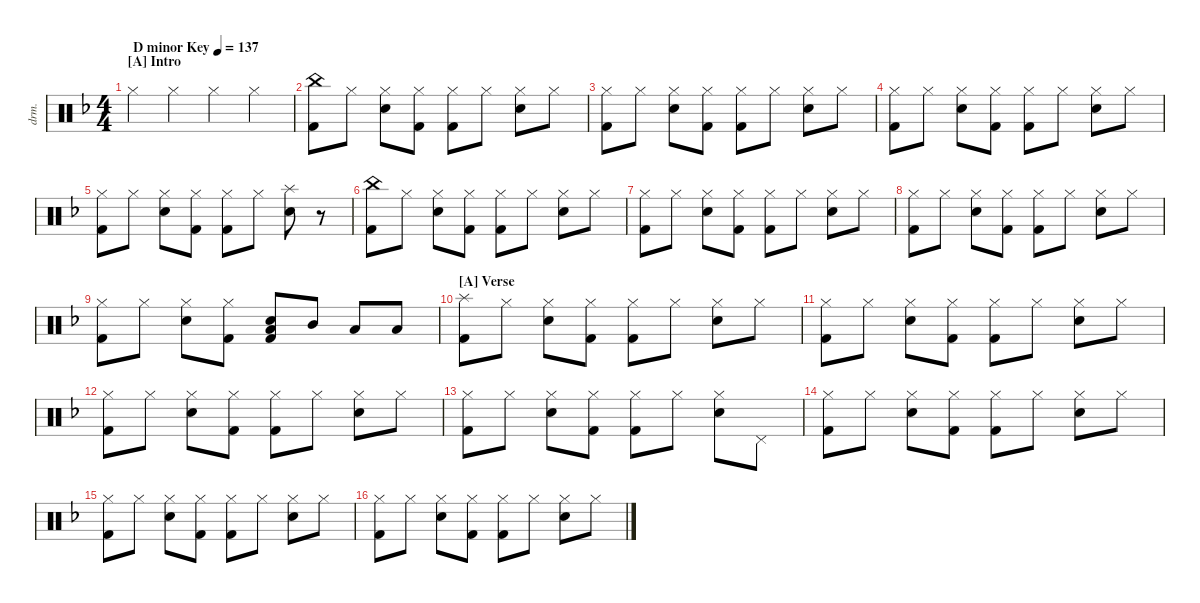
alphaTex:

\defaultSystemsLayout 4
\hideDynamics
\bracketExtendMode nobrackets
\track ("Drumkit" "drm.") {defaultSystemsLayout 4 instrument percussion}
\staff {score}
\articulation defaults
\ts (4 4)
\section ("A" "Intro")
\tempo (137 "D minor Key")
\clef neutral
\ks f "Hi-Hat (closed)"{acc forcenatural}.4{dy mf beam Down} "Hi-Hat (closed)"{acc forcenatural}.4{beam Down} "Hi-Hat (closed)"{acc forcenatural}.4{beam Down} "Hi-Hat (closed)"{acc forcenatural}.4{beam Down}
|
("Kick (hit) 2"{acc forcenatural} "China (hit)"{acc forcenatural}).8{beam Down} "Hi-Hat (closed)"{acc forcenatural}.8{beam Down} ("Hi-Hat (closed)"{acc forcenatural} "Snare (hit) 2"{acc forcenatural}).8{beam Down} ("Hi-Hat (closed)"{acc forcenatural} "Kick (hit) 2"{acc forcenatural}).8{beam Down} ("Hi-Hat (closed)"{acc forcenatural} "Kick (hit) 2"{acc forcenatural}).8{beam Down} "Hi-Hat (closed)"{acc forcenatural}.8{beam Down} ("Hi-Hat (closed)"{acc forcenatural} "Snare (hit) 2"{acc forcenatural}).8{beam Down} "Hi-Hat (closed)"{acc forcenatural}.8{beam Down} |
("Kick (hit) 2"{acc forcenatural} "Hi-Hat (closed)"{acc forcenatural}).8{beam Down} "Hi-Hat (closed)"{acc forcenatural}.8{beam Down} ("Hi-Hat (closed)"{acc forcenatural} "Snare (hit) 2"{acc forcenatural}).8{beam Down} ("Hi-Hat (closed)"{acc forcenatural} "Kick (hit) 2"{acc forcenatural}).8{beam Down} ("Hi-Hat (closed)"{acc forcenatural} "Kick (hit) 2"{acc forcenatural}).8{beam Down} "Hi-Hat (closed)"{acc forcenatural}.8{beam Down} ("Hi-Hat (closed)"{acc forcenatural} "Snare (hit) 2"{acc forcenatural}).8{beam Down} "Hi-Hat (closed)"{acc forcenatural}.8{beam Down} |
("Kick (hit) 2"{acc forcenatural} "Hi-Hat (closed)"{acc forcenatural}).8{beam Down} "Hi-Hat (closed)"{acc forcenatural}.8{beam Down} ("Hi-Hat (closed)"{acc forcenatural} "Snare (hit) 2"{acc forcenatural}).8{beam Down} ("Hi-Hat (closed)"{acc forcenatural} "Kick (hit) 2"{acc forcenatural}).8{beam Down} ("Hi-Hat (closed)"{acc forcenatural} "Kick (hit) 2"{acc forcenatural}).8{beam Down} "Hi-Hat (closed)"{acc forcenatural}.8{beam Down} ("Hi-Hat (closed)"{acc forcenatural} "Snare (hit) 2"{acc forcenatural}).8{beam Down} "Hi-Hat (closed)"{acc forcenatural}.8{beam Down} |
("Kick (hit) 2"{acc forcenatural} "Hi-Hat (closed)"{acc forcenatural}).8{beam Down} "Hi-Hat (closed)"{acc forcenatural}.8{beam Down} ("Hi-Hat (closed)"{acc forcenatural} "Snare (hit) 2"{acc forcenatural}).8{beam Down} ("Hi-Hat (closed)"{acc forcenatural} "Kick (hit) 2"{acc forcenatural}).8{beam Down} ("Hi-Hat (closed)"{acc forcenatural} "Kick (hit) 2"{acc forcenatural}).8{beam Down} "Hi-Hat (closed)"{acc forcenatural}.8{beam Down} ("Snare (hit) 2"{acc forcenatural} "Splash (hit)"{acc forcenatural}).8{beam Down} r.8{beam Down} |
("Kick (hit) 2"{acc forcenatural} "China (hit)"{acc forcenatural}).8{beam Down} "Hi-Hat (closed)"{acc forcenatural}.8{beam Down} ("Hi-Hat (closed)"{acc forcenatural} "Snare (hit) 2"{acc forcenatural}).8{beam Down} ("Hi-Hat (closed)"{acc forcenatural} "Kick (hit) 2"{acc forcenatural}).8{beam Down} ("Hi-Hat (closed)"{acc forcenatural} "Kick (hit) 2"{acc forcenatural}).8{beam Down} "Hi-Hat (closed)"{acc forcenatural}.8{beam Down} ("Hi-Hat (closed)"{acc forcenatural} "Snare (hit) 2"{acc forcenatural}).8{beam Down} "Hi-Hat (closed)"{acc forcenatural}.8{beam Down} |
("Kick (hit) 2"{acc forcenatural} "Hi-Hat (closed)"{acc forcenatural}).8{beam Down} "Hi-Hat (closed)"{acc forcenatural}.8{beam Down} ("Hi-Hat (closed)"{acc forcenatural} "Snare (hit) 2"{acc forcenatural}).8{beam Down} ("Hi-Hat (closed)"{acc forcenatural} "Kick (hit) 2"{acc forcenatural}).8{beam Down} ("Hi-Hat (closed)"{acc forcenatural} "Kick (hit) 2"{acc forcenatural}).8{beam Down} "Hi-Hat (closed)"{acc forcenatural}.8{beam Down} ("Hi-Hat (closed)"{acc forcenatural} "Snare (hit) 2"{acc forcenatural}).8{beam Down} "Hi-Hat (closed)"{acc forcenatural}.8{beam Down} |
("Kick (hit) 2"{acc forcenatural} "Hi-Hat (closed)"{acc forcenatural}).8{beam Down} "Hi-Hat (closed)"{acc forcenatural}.8{beam Down} ("Hi-Hat (closed)"{acc forcenatural} "Snare (hit) 2"{acc forcenatural}).8{beam Down} ("Hi-Hat (closed)"{acc forcenatural} "Kick (hit) 2"{acc forcenatural}).8{beam Down} ("Hi-Hat (closed)"{acc forcenatural} "Kick (hit) 2"{acc forcenatural}).8{beam Down} "Hi-Hat (closed)"{acc forcenatural}.8{beam Down} ("Hi-Hat (closed)"{acc forcenatural} "Snare (hit) 2"{acc forcenatural}).8{beam Down} "Hi-Hat (closed)"{acc forcenatural}.8{beam Down} |
("Kick (hit) 2"{acc forcenatural} "Hi-Hat (closed)"{acc forcenatural}).8{beam Down} "Hi-Hat (closed)"{acc forcenatural}.8{beam Down} ("Hi-Hat (closed)"{acc forcenatural} "Snare (hit) 2"{acc forcenatural}).8{beam Down} ("Hi-Hat (closed)"{acc forcenatural} "Kick (hit) 2"{acc forcenatural}).8{beam Down} ("Snare (hit) 2"{acc forcenatural} "Low Tom (hit)"{acc forcenatural} "Kick (hit) 2"{acc forcenatural}).8{beam Up} "Mid Tom (hit)"{acc forcenatural}.8{beam Up} "Low Tom (hit)"{acc forcenatural}.8{beam Up} "Low Tom (hit)"{acc forcenatural}.8{beam Up} |
\section ("A" "Verse")
("Kick (hit) 2"{acc forcenatural} "Splash (hit)"{acc forcenatural}).8{beam Down} "Hi-Hat (closed)"{acc forcenatural}.8{beam Down} ("Hi-Hat (closed)"{acc forcenatural} "Snare (hit) 2"{acc forcenatural}).8{beam Down} ("Hi-Hat (closed)"{acc forcenatural} "Kick (hit) 2"{acc forcenatural}).8{beam Down} ("Hi-Hat (closed)"{acc forcenatural} "Kick (hit) 2"{acc forcenatural}).8{beam Down} "Hi-Hat (closed)"{acc forcenatural}.8{beam Down} ("Hi-Hat (closed)"{acc forcenatural} "Snare (hit) 2"{acc forcenatural}).8{beam Down} "Hi-Hat (closed)"{acc forcenatural}.8{beam Down} |
("Kick (hit) 2"{acc forcenatural} "Hi-Hat (closed)"{acc forcenatural}).8{beam Down} "Hi-Hat (closed)"{acc forcenatural}.8{beam Down} ("Hi-Hat (closed)"{acc forcenatural} "Snare (hit) 2"{acc forcenatural}).8{beam Down} ("Hi-Hat (closed)"{acc forcenatural} "Kick (hit) 2"{acc forcenatural}).8{beam Down} ("Hi-Hat (closed)"{acc forcenatural} "Kick (hit) 2"{acc forcenatural}).8{beam Down} "Hi-Hat (closed)"{acc forcenatural}.8{beam Down} ("Hi-Hat (closed)"{acc forcenatural} "Snare (hit) 2"{acc forcenatural}).8{beam Down} "Hi-Hat (closed)"{acc forcenatural}.8{beam Down} |
("Kick (hit) 2"{acc forcenatural} "Hi-Hat (closed)"{acc forcenatural}).8{beam Down} "Hi-Hat (closed)"{acc forcenatural}.8{beam Down} ("Hi-Hat (closed)"{acc forcenatural} "Snare (hit) 2"{acc forcenatural}).8{beam Down} ("Hi-Hat (closed)"{acc forcenatural} "Kick (hit) 2"{acc forcenatural}).8{beam Down} ("Hi-Hat (closed)"{acc forcenatural} "Kick (hit) 2"{acc forcenatural}).8{beam Down} "Hi-Hat (closed)"{acc forcenatural}.8{beam Down} ("Hi-Hat (closed)"{acc forcenatural} "Snare (hit) 2"{acc forcenatural}).8{beam Down} "Hi-Hat (closed)"{acc forcenatural}.8{beam Down} |
("Kick (hit) 2"{acc forcenatural} "Hi-Hat (closed)"{acc forcenatural}).8{beam Down} "Hi-Hat (closed)"{acc forcenatural}.8{beam Down} ("Hi-Hat (closed)"{acc forcenatural} "Snare (hit) 2"{acc forcenatural}).8{beam Down} ("Hi-Hat (closed)"{acc forcenatural} "Kick (hit) 2"{acc forcenatural}).8{beam Down} ("Hi-Hat (closed)"{acc forcenatural} "Kick (hit) 2"{acc forcenatural}).8{beam Down} "Hi-Hat (closed)"{acc forcenatural}.8{beam Down} ("Hi-Hat (closed)"{acc forcenatural} "Snare (hit) 2"{acc forcenatural}).8{beam Down} "Pedal Hi-Hat (hit)"{acc forcenatural}.8{beam Down} |
("Kick (hit) 2"{acc forcenatural} "Hi-Hat (closed)"{acc forcenatural}).8{beam Down} "Hi-Hat (closed)"{acc forcenatural}.8{beam Down} ("Hi-Hat (closed)"{acc forcenatural} "Snare (hit) 2"{acc forcenatural}).8{beam Down} ("Hi-Hat (closed)"{acc forcenatural} "Kick (hit) 2"{acc forcenatural}).8{beam Down} ("Hi-Hat (closed)"{acc forcenatural} "Kick (hit) 2"{acc forcenatural}).8{beam Down} "Hi-Hat (closed)"{acc forcenatural}.8{beam Down} ("Hi-Hat (closed)"{acc forcenatural} "Snare (hit) 2"{acc forcenatural}).8{beam Down} "Hi-Hat (closed)"{acc forcenatural}.8{beam Down} |
("Kick (hit) 2"{acc forcenatural} "Hi-Hat (closed)"{acc forcenatural}).8{beam Down} "Hi-Hat (closed)"{acc forcenatural}.8{beam Down} ("Hi-Hat (closed)"{acc forcenatural} "Snare (hit) 2"{acc forcenatural}).8{beam Down} ("Hi-Hat (closed)"{acc forcenatural} "Kick (hit) 2"{acc forcenatural}).8{beam Down} ("Hi-Hat (closed)"{acc forcenatural} "Kick (hit) 2"{acc forcenatural}).8{beam Down} "Hi-Hat (closed)"{acc forcenatural}.8{beam Down} ("Hi-Hat (closed)"{acc forcenatural} "Snare (hit) 2"{acc forcenatural}).8{beam Down} "Hi-Hat (closed)"{acc forcenatural}.8{beam Down} |
("Kick (hit) 2"{acc forcenatural} "Hi-Hat (closed)"{acc forcenatural}).8{beam Down} "Hi-Hat (closed)"{acc forcenatural}.8{beam Down} ("Hi-Hat (closed)"{acc forcenatural} "Snare (hit) 2"{acc forcenatural}).8{beam Down} ("Hi-Hat (closed)"{acc forcenatural} "Kick (hit) 2"{acc forcenatural}).8{beam Down} ("Hi-Hat (closed)"{acc forcenatural} "Kick (hit) 2"{acc forcenatural}).8{beam Down} "Hi-Hat (closed)"{acc forcenatural}.8{beam Down} ("Hi-Hat (closed)"{acc forcenatural} "Snare (hit) 2"{acc forcenatural}).8{beam Down} "Hi-Hat (closed)"{acc forcenatural}.8{beam Down}
